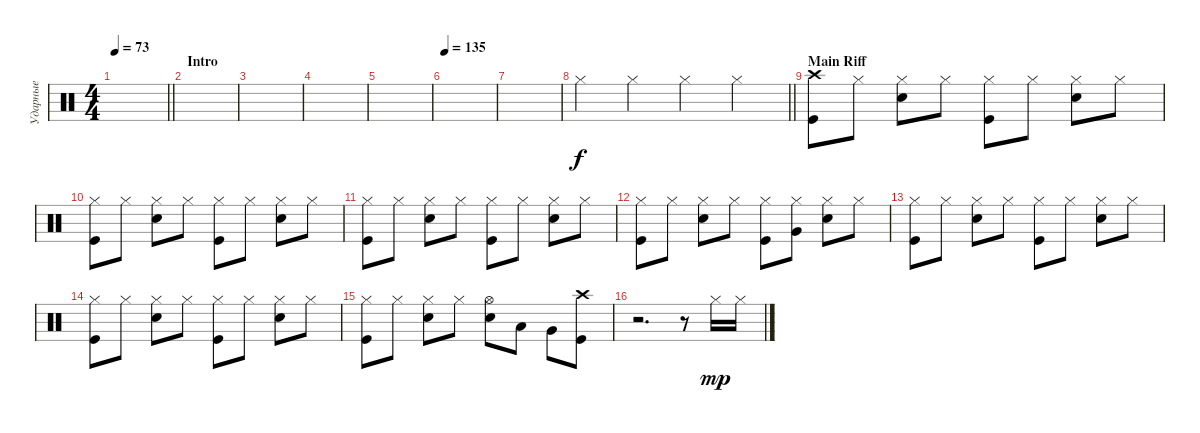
\track ("Ударные" "Ударные") {instrument percussion}
\staff {score}
\articulation defaults
\ts (4 4)
\tempo 73
\clef neutral
\barLineRight lightlight
\ks c
|
\section ("" "Intro")
|
|
|
|
\tempo 135
|
|
\barLineRight lightlight "Hi-Hat (closed)".4 "Hi-Hat (closed)".4 "Hi-Hat (closed)".4 "Hi-Hat (closed)".4
|
\section ("" "Main Riff")
("Crash high (hit)" "Kick (hit)").8 "Hi-Hat (closed)".8 ("Hi-Hat (closed)" "Snare (hit) 2").8 "Hi-Hat (closed)".8 ("Hi-Hat (closed)" "Kick (hit)").8 "Hi-Hat (closed)".8 ("Hi-Hat (closed)" "Snare (hit) 2").8 "Hi-Hat (closed)".8 |
("Hi-Hat (closed)" "Kick (hit)").8 "Hi-Hat (closed)".8 ("Hi-Hat (closed)" "Snare (hit) 2").8 "Hi-Hat (closed)".8 ("Hi-Hat (closed)" "Kick (hit)").8 "Hi-Hat (closed)".8 ("Hi-Hat (closed)" "Snare (hit) 2").8 "Hi-Hat (closed)".8 |
("Hi-Hat (closed)" "Kick (hit)").8 "Hi-Hat (closed)".8 ("Hi-Hat (closed)" "Snare (hit) 2").8 "Hi-Hat (closed)".8 ("Hi-Hat (closed)" "Kick (hit)").8 "Hi-Hat (closed)".8 ("Hi-Hat (closed)" "Snare (hit) 2").8 "Hi-Hat (closed)".8 |
("Hi-Hat (closed)" "Kick (hit)").8 "Hi-Hat (closed)".8 ("Hi-Hat (closed)" "Snare (hit) 2").8 "Hi-Hat (closed)".8 ("Hi-Hat (closed)" "Kick (hit)").8 ("Very Low Tom (hit)" "Hi-Hat (closed)").8 ("Hi-Hat (closed)" "Snare (hit) 2").8 "Hi-Hat (closed)".8 |
("Hi-Hat (closed)" "Kick (hit)").8 "Hi-Hat (closed)".8 ("Hi-Hat (closed)" "Snare (hit) 2").8 "Hi-Hat (closed)".8 ("Hi-Hat (closed)" "Kick (hit)").8 "Hi-Hat (closed)".8 ("Hi-Hat (closed)" "Snare (hit) 2").8 "Hi-Hat (closed)".8 |
("Hi-Hat (closed)" "Kick (hit)").8 "Hi-Hat (closed)".8 ("Hi-Hat (closed)" "Snare (hit) 2").8 "Hi-Hat (closed)".8 ("Hi-Hat (closed)" "Kick (hit)").8 "Hi-Hat (closed)".8 ("Hi-Hat (closed)" "Snare (hit) 2").8 "Hi-Hat (closed)".8 |
("Hi-Hat (closed)" "Kick (hit)").8 "Hi-Hat (closed)".8 ("Hi-Hat (closed)" "Snare (hit) 2").8 "Hi-Hat (closed)".8 ("Snare (hit) 2" "Hi-Hat (open)").8 "Low Tom (hit)".8 "Very Low Tom (hit)".8 ("Kick (hit)" "Crash high (hit)").8 |
r.2{d} r.8 "Hi-Hat (closed)".16{dy mp} "Hi-Hat (closed)".16
